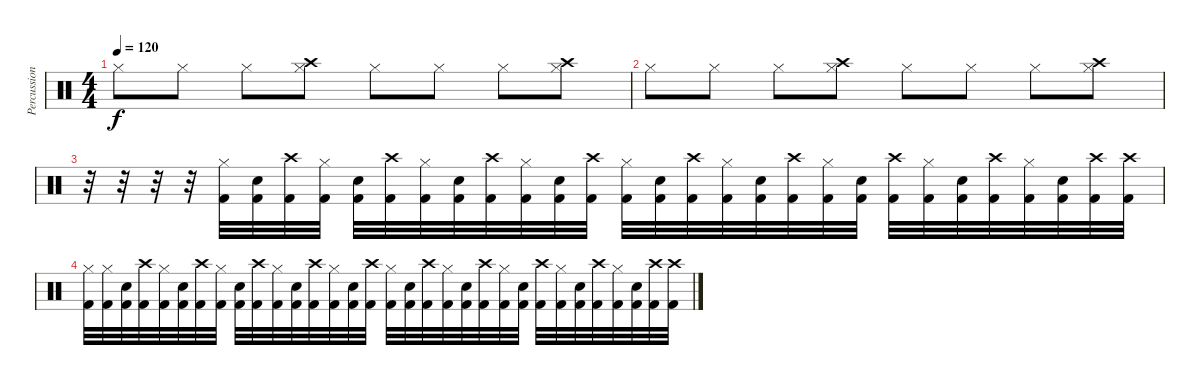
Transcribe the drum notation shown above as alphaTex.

\track ("Percussion" "Percussion") {instrument percussion}
\staff {score}
\articulation defaults
\ts (4 4)
\tempo 120
\clef neutral
\ks c "Hi-Hat (closed)".8{dy f} "Hi-Hat (closed)".8 "Hi-Hat (closed)".8
("Crash high (hit)" "Hi-Hat (closed)").8 "Hi-Hat (closed)".8 "Hi-Hat (closed)".8 "Hi-Hat (closed)".8 ("Crash high (hit)" "Hi-Hat (closed)").8 |
"Hi-Hat (closed)".8 "Hi-Hat (closed)".8 "Hi-Hat (closed)".8 ("Crash high (hit)" "Hi-Hat (closed)").8 "Hi-Hat (closed)".8 "Hi-Hat (closed)".8 "Hi-Hat (closed)".8 ("Crash high (hit)" "Hi-Hat (closed)").8 |
r.32 r.32 r.32 r.32 ("Hi-Hat (closed)" "Kick (hit) 2").32 ("Electric Snare (hit)" "Kick (hit) 2").32 ("Crash high (hit)" "Kick (hit) 2").32 ("Hi-Hat (closed)" "Kick (hit) 2").32 ("Electric Snare (hit)" "Kick (hit) 2").32 ("Crash high (hit)" "Kick (hit) 2").32 ("Hi-Hat (closed)" "Kick (hit) 2").32 ("Electric Snare (hit)" "Kick (hit) 2").32 ("Crash high (hit)" "Kick (hit) 2").32 ("Hi-Hat (closed)" "Kick (hit) 2").32 ("Electric Snare (hit)" "Kick (hit) 2").32 ("Crash high (hit)" "Kick (hit) 2").32 ("Hi-Hat (closed)" "Kick (hit) 2").32 ("Electric Snare (hit)" "Kick (hit) 2").32 ("Crash high (hit)" "Kick (hit) 2").32 ("Hi-Hat (closed)" "Kick (hit) 2").32 ("Electric Snare (hit)" "Kick (hit) 2").32 ("Crash high (hit)" "Kick (hit) 2").32 ("Hi-Hat (closed)" "Kick (hit) 2").32 ("Electric Snare (hit)" "Kick (hit) 2").32 ("Crash high (hit)" "Kick (hit) 2").32 ("Hi-Hat (closed)" "Kick (hit) 2").32 ("Electric Snare (hit)" "Kick (hit) 2").32 ("Crash high (hit)" "Kick (hit) 2").32 ("Hi-Hat (closed)" "Kick (hit) 2").32 ("Electric Snare (hit)" "Kick (hit) 2").32 ("Crash high (hit)" "Kick (hit) 2").32 ("Crash high (hit)" "Kick (hit) 2").32 |
("Hi-Hat (closed)" "Kick (hit) 2").32 ("Hi-Hat (closed)" "Kick (hit) 2").32 ("Electric Snare (hit)" "Kick (hit) 2").32 ("Crash high (hit)" "Kick (hit) 2").32 ("Hi-Hat (closed)" "Kick (hit) 2").32 ("Electric Snare (hit)" "Kick (hit) 2").32 ("Crash high (hit)" "Kick (hit) 2").32 ("Hi-Hat (closed)" "Kick (hit) 2").32 ("Electric Snare (hit)" "Kick (hit) 2").32 ("Crash high (hit)" "Kick (hit) 2").32 ("Hi-Hat (closed)" "Kick (hit) 2").32 ("Electric Snare (hit)" "Kick (hit) 2").32 ("Crash high (hit)" "Kick (hit) 2").32 ("Hi-Hat (closed)" "Kick (hit) 2").32 ("Electric Snare (hit)" "Kick (hit) 2").32 ("Crash high (hit)" "Kick (hit) 2").32 ("Hi-Hat (closed)" "Kick (hit) 2").32 ("Electric Snare (hit)" "Kick (hit) 2").32 ("Crash high (hit)" "Kick (hit) 2").32 ("Hi-Hat (closed)" "Kick (hit) 2").32 ("Electric Snare (hit)" "Kick (hit) 2").32 ("Crash high (hit)" "Kick (hit) 2").32 ("Hi-Hat (closed)" "Kick (hit) 2").32 ("Electric Snare (hit)" "Kick (hit) 2").32 ("Crash high (hit)" "Kick (hit) 2").32 ("Hi-Hat (closed)" "Kick (hit) 2").32 ("Electric Snare (hit)" "Kick (hit) 2").32 ("Crash high (hit)" "Kick (hit) 2").32 ("Hi-Hat (closed)" "Kick (hit) 2").32 ("Electric Snare (hit)" "Kick (hit) 2").32 ("Crash high (hit)" "Kick (hit) 2").32 ("Crash high (hit)" "Kick (hit) 2").32
